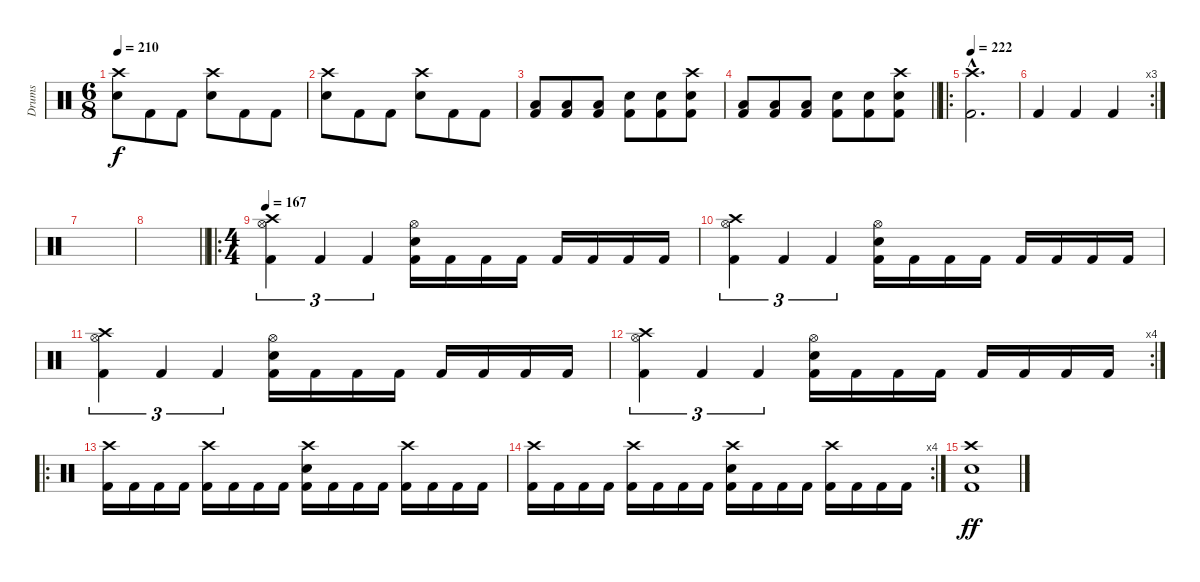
\track ("Drums" "Drums") {instrument percussion}
\staff {score}
\articulation defaults
\ts (6 8)
\tempo 210
\clef neutral
\ks c
("Crash high (hit)" "Snare (hit) 2").8{dy f} "Kick (hit) 2".8 "Kick (hit) 2".8 ("Crash high (hit)" "Snare (hit) 2").8 "Kick (hit) 2".8 "Kick (hit) 2".8 |
("Crash high (hit)" "Snare (hit) 2").8 "Kick (hit) 2".8 "Kick (hit) 2".8 ("Crash high (hit)" "Snare (hit) 2").8 "Kick (hit) 2".8 "Kick (hit) 2".8 |
("Low Tom (hit)" "Kick (hit) 2").8 ("Low Tom (hit)" "Kick (hit) 2").8 ("Low Tom (hit)" "Kick (hit) 2").8 ("Snare (hit) 2" "Kick (hit) 2").8 ("Snare (hit) 2" "Kick (hit) 2").8 ("Crash high (hit)" "Snare (hit) 2" "Kick (hit) 2").8 |
\barLineRight lightlight
("Low Tom (hit)" "Kick (hit) 2").8 ("Low Tom (hit)" "Kick (hit) 2").8 ("Low Tom (hit)" "Kick (hit) 2").8 ("Snare (hit) 2" "Kick (hit) 2").8 ("Snare (hit) 2" "Kick (hit) 2").8 ("Crash high (hit)" "Snare (hit) 2" "Kick (hit) 2").8 |
\ro
\tempo 222
("Crash high (hit)"{hac} "Kick (hit) 2"{hac}).2{d} |
\rc 3 "Kick (hit) 2".4 "Kick (hit) 2".4 "Kick (hit) 2".4
|
|
\barLineRight lightlight
|
\ro
\ts (4 4)
\tempo 167
("Crash high (hit)" "Hi-Hat (open)" "Kick (hit) 2").4{tu (3 2)} "Kick (hit) 2".4{tu (3 2)} "Kick (hit) 2".4{tu (3 2)} ("Hi-Hat (open)" "Snare (hit) 2" "Kick (hit) 2").16 "Kick (hit) 2".16 "Kick (hit) 2".16 "Kick (hit) 2".16 "Kick (hit) 2".16 "Kick (hit) 2".16 "Kick (hit) 2".16 "Kick (hit) 2".16 |
("Crash high (hit)" "Hi-Hat (open)" "Kick (hit) 2").4{tu (3 2)} "Kick (hit) 2".4{tu (3 2)} "Kick (hit) 2".4{tu (3 2)} ("Hi-Hat (open)" "Snare (hit) 2" "Kick (hit) 2").16 "Kick (hit) 2".16 "Kick (hit) 2".16 "Kick (hit) 2".16 "Kick (hit) 2".16 "Kick (hit) 2".16 "Kick (hit) 2".16 "Kick (hit) 2".16 |
("Crash high (hit)" "Hi-Hat (open)" "Kick (hit) 2").4{tu (3 2)} "Kick (hit) 2".4{tu (3 2)} "Kick (hit) 2".4{tu (3 2)} ("Hi-Hat (open)" "Snare (hit) 2" "Kick (hit) 2").16 "Kick (hit) 2".16 "Kick (hit) 2".16 "Kick (hit) 2".16 "Kick (hit) 2".16 "Kick (hit) 2".16 "Kick (hit) 2".16 "Kick (hit) 2".16 |
\rc 4
("Crash high (hit)" "Hi-Hat (open)" "Kick (hit) 2").4{tu (3 2)} "Kick (hit) 2".4{tu (3 2)} "Kick (hit) 2".4{tu (3 2)} ("Hi-Hat (open)" "Snare (hit) 2" "Kick (hit) 2").16 "Kick (hit) 2".16 "Kick (hit) 2".16 "Kick (hit) 2".16 "Kick (hit) 2".16 "Kick (hit) 2".16 "Kick (hit) 2".16 "Kick (hit) 2".16 |
\ro
("Crash high (hit)" "Kick (hit) 2").16 "Kick (hit) 2".16 "Kick (hit) 2".16 "Kick (hit) 2".16 ("Crash high (hit)" "Kick (hit) 2").16 "Kick (hit) 2".16 "Kick (hit) 2".16 "Kick (hit) 2".16 ("Crash high (hit)" "Snare (hit) 2" "Kick (hit) 2").16 "Kick (hit) 2".16 "Kick (hit) 2".16 "Kick (hit) 2".16 ("Crash high (hit)" "Kick (hit) 2").16 "Kick (hit) 2".16 "Kick (hit) 2".16 "Kick (hit) 2".16 |
\rc 4
("Crash high (hit)" "Kick (hit) 2").16 "Kick (hit) 2".16 "Kick (hit) 2".16 "Kick (hit) 2".16 ("Crash high (hit)" "Kick (hit) 2").16 "Kick (hit) 2".16 "Kick (hit) 2".16 "Kick (hit) 2".16 ("Crash high (hit)" "Snare (hit) 2" "Kick (hit) 2").16 "Kick (hit) 2".16 "Kick (hit) 2".16 "Kick (hit) 2".16 ("Crash high (hit)" "Kick (hit) 2").16 "Kick (hit) 2".16 "Kick (hit) 2".16 "Kick (hit) 2".16 |
("Crash high (hit)" "Snare (hit) 2" "Kick (hit) 2").1{dy ff}
